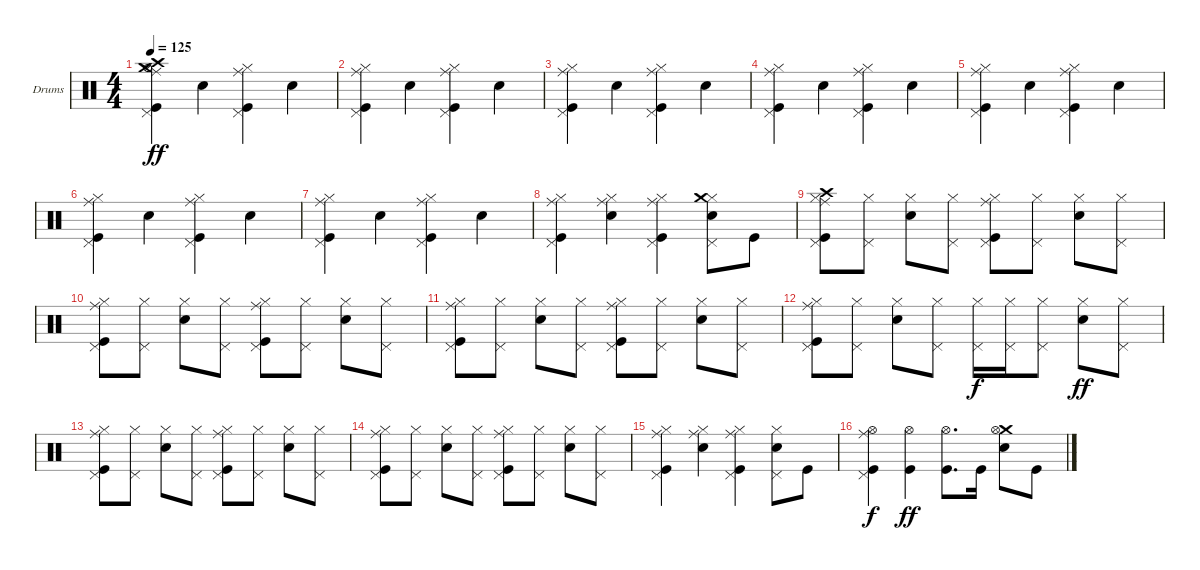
\defaultSystemsLayout 4
\bracketExtendMode groupsimilarinstruments
\firstSystemTrackNameOrientation horizontal
\otherSystemsTrackNameOrientation horizontal
\track ("Drums" "Drums") {instrument percussion}
\staff {score}
\articulation defaults
\ts (4 4)
\tempo 125
\clef neutral
\ks c
("Kick (hit)" "Pedal Hi-Hat (hit)" "Ride (middle)" "Hi-Hat (half)" "Crash medium (hit)" "Crash high (hit)").4{dy ff} "Snare (hit) 2".4 ("Kick (hit)" "Pedal Hi-Hat (hit)" "Ride (middle)" "Hi-Hat (closed)").4 "Snare (hit) 2".4 |
("Kick (hit)" "Pedal Hi-Hat (hit)" "Ride (middle)" "Hi-Hat (closed)").4 "Snare (hit) 2".4 ("Kick (hit)" "Pedal Hi-Hat (hit)" "Ride (middle)" "Hi-Hat (closed)").4 "Snare (hit) 2".4 |
("Kick (hit)" "Pedal Hi-Hat (hit)" "Ride (middle)" "Hi-Hat (closed)").4 "Snare (hit) 2".4 ("Kick (hit)" "Pedal Hi-Hat (hit)" "Ride (middle)" "Hi-Hat (closed)").4 "Snare (hit) 2".4 |
("Kick (hit)" "Pedal Hi-Hat (hit)" "Ride (middle)" "Hi-Hat (closed)").4 "Snare (hit) 2".4 ("Kick (hit)" "Pedal Hi-Hat (hit)" "Ride (middle)" "Hi-Hat (closed)").4 "Snare (hit) 2".4 |
("Kick (hit)" "Pedal Hi-Hat (hit)" "Ride (middle)" "Hi-Hat (closed)").4 "Snare (hit) 2".4 ("Kick (hit)" "Pedal Hi-Hat (hit)" "Ride (middle)" "Hi-Hat (closed)").4 "Snare (hit) 2".4 |
("Kick (hit)" "Pedal Hi-Hat (hit)" "Ride (middle)" "Hi-Hat (closed)").4 "Snare (hit) 2".4 ("Kick (hit)" "Pedal Hi-Hat (hit)" "Ride (middle)" "Hi-Hat (closed)").4 "Snare (hit) 2".4 |
("Kick (hit)" "Pedal Hi-Hat (hit)" "Ride (middle)" "Hi-Hat (closed)").4 "Snare (hit) 2".4 ("Kick (hit)" "Pedal Hi-Hat (hit)" "Ride (middle)" "Hi-Hat (closed)").4 "Snare (hit) 2".4 |
("Kick (hit)" "Pedal Hi-Hat (hit)" "Ride (middle)" "Hi-Hat (closed)").4 ("Snare (hit) 2" "Hi-Hat (closed)" "Ride (middle)").4 ("Kick (hit)" "Pedal Hi-Hat (hit)" "Ride (middle)" "Hi-Hat (closed)").4 ("Snare (hit) 2" "Hi-Hat (closed)" "Pedal Hi-Hat (hit)" "Crash medium (hit)").8 "Kick (hit)".8 |
("Kick (hit)" "Pedal Hi-Hat (hit)" "Ride (middle)" "Hi-Hat (closed)" "Crash high (hit)").8 ("Hi-Hat (closed)" "Pedal Hi-Hat (hit)").8 ("Snare (hit) 2" "Hi-Hat (closed)").8 ("Hi-Hat (closed)" "Pedal Hi-Hat (hit)").8 ("Kick (hit)" "Pedal Hi-Hat (hit)" "Ride (middle)" "Hi-Hat (closed)").8 ("Hi-Hat (closed)" "Pedal Hi-Hat (hit)").8 ("Snare (hit) 2" "Hi-Hat (closed)").8 ("Hi-Hat (closed)" "Pedal Hi-Hat (hit)").8 |
("Kick (hit)" "Pedal Hi-Hat (hit)" "Ride (middle)" "Hi-Hat (closed)").8 ("Hi-Hat (closed)" "Pedal Hi-Hat (hit)").8 ("Snare (hit) 2" "Hi-Hat (closed)").8 ("Hi-Hat (closed)" "Pedal Hi-Hat (hit)").8 ("Kick (hit)" "Pedal Hi-Hat (hit)" "Ride (middle)" "Hi-Hat (closed)").8 ("Hi-Hat (closed)" "Pedal Hi-Hat (hit)").8 ("Snare (hit) 2" "Hi-Hat (closed)").8 ("Hi-Hat (closed)" "Pedal Hi-Hat (hit)").8 |
("Kick (hit)" "Pedal Hi-Hat (hit)" "Ride (middle)" "Hi-Hat (closed)").8 ("Hi-Hat (closed)" "Pedal Hi-Hat (hit)").8 ("Snare (hit) 2" "Hi-Hat (closed)").8 ("Hi-Hat (closed)" "Pedal Hi-Hat (hit)").8 ("Kick (hit)" "Pedal Hi-Hat (hit)" "Ride (middle)" "Hi-Hat (closed)").8 ("Hi-Hat (closed)" "Pedal Hi-Hat (hit)").8 ("Snare (hit) 2" "Hi-Hat (closed)").8 ("Hi-Hat (closed)" "Pedal Hi-Hat (hit)").8 |
("Kick (hit)" "Pedal Hi-Hat (hit)" "Ride (middle)" "Hi-Hat (closed)").8 ("Hi-Hat (closed)" "Pedal Hi-Hat (hit)").8 ("Snare (hit) 2" "Hi-Hat (closed)").8 ("Hi-Hat (closed)" "Pedal Hi-Hat (hit)").8 ("Pedal Hi-Hat (hit)" "Hi-Hat (closed)").16{dy f} ("Pedal Hi-Hat (hit)" "Hi-Hat (closed)").16 ("Pedal Hi-Hat (hit)" "Hi-Hat (closed)").8 ("Snare (hit) 2" "Hi-Hat (closed)").8{dy ff} ("Hi-Hat (closed)" "Pedal Hi-Hat (hit)").8 |
("Kick (hit)" "Pedal Hi-Hat (hit)" "Ride (middle)" "Hi-Hat (closed)").8 ("Hi-Hat (closed)" "Pedal Hi-Hat (hit)").8 ("Snare (hit) 2" "Hi-Hat (closed)").8 ("Hi-Hat (closed)" "Pedal Hi-Hat (hit)").8 ("Kick (hit)" "Pedal Hi-Hat (hit)" "Ride (middle)" "Hi-Hat (closed)").8 ("Hi-Hat (closed)" "Pedal Hi-Hat (hit)").8 ("Snare (hit) 2" "Hi-Hat (closed)").8 ("Hi-Hat (closed)" "Pedal Hi-Hat (hit)").8 |
("Kick (hit)" "Pedal Hi-Hat (hit)" "Ride (middle)" "Hi-Hat (closed)").8 ("Hi-Hat (closed)" "Pedal Hi-Hat (hit)").8 ("Snare (hit) 2" "Hi-Hat (closed)").8 ("Hi-Hat (closed)" "Pedal Hi-Hat (hit)").8 ("Kick (hit)" "Pedal Hi-Hat (hit)" "Ride (middle)" "Hi-Hat (closed)").8 ("Hi-Hat (closed)" "Pedal Hi-Hat (hit)").8 ("Snare (hit) 2" "Hi-Hat (closed)").8 ("Hi-Hat (closed)" "Pedal Hi-Hat (hit)").8 |
("Kick (hit)" "Pedal Hi-Hat (hit)" "Ride (middle)" "Hi-Hat (closed)").4 ("Snare (hit) 2" "Hi-Hat (closed)" "Ride (middle)").4 ("Kick (hit)" "Pedal Hi-Hat (hit)" "Ride (middle)" "Hi-Hat (closed)").4 ("Snare (hit) 2" "Hi-Hat (closed)" "Pedal Hi-Hat (hit)").8 "Kick (hit)".8 |
("Kick (hit)" "Pedal Hi-Hat (hit)" "Ride (middle)" "Hi-Hat (open)").4{dy f} ("Kick (hit)" "Hi-Hat (open)").4{dy ff} ("Kick (hit)" "Hi-Hat (open)").8{d} "Kick (hit)".16 ("Snare (hit) 2" "Crash medium (hit)" "Hi-Hat (open)").8 "Kick (hit)".8
